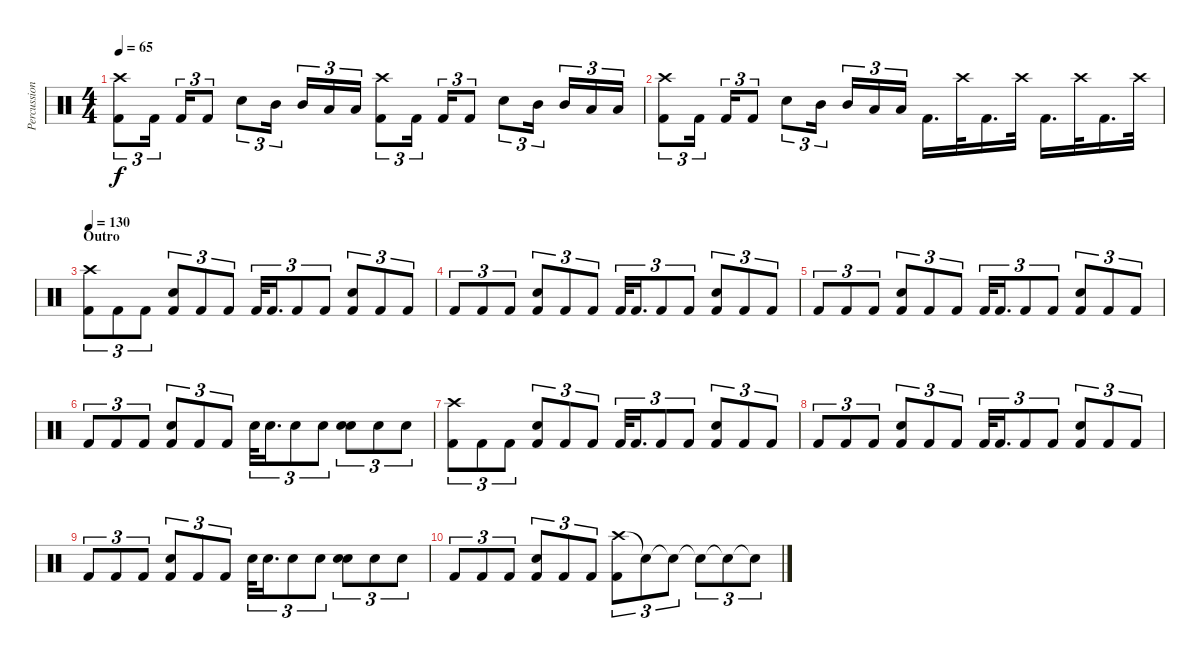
\track ("Percussions" "Percussion") {instrument percussion}
\staff {score}
\articulation defaults
\ts (4 4)
\tempo 65
\clef neutral
\ks c
("Crash high (hit)" "Kick (hit) 2").8{tu (3 2) dy f} "Kick (hit) 2".16{tu (3 2) beam splitsecondary} "Kick (hit) 2".16{tu (3 2)} "Kick (hit) 2".8{tu (3 2)} "Electric Snare (hit)".8{tu (3 2)} "Mid Tom (hit)".16{tu (3 2) beam splitsecondary} "Mid Tom (hit)".16{tu (3 2)} "Low Tom (hit)".16{tu (3 2)} "Low Tom (hit)".16{tu (3 2)} ("Crash high (hit)" "Kick (hit) 2").8{tu (3 2)} "Kick (hit) 2".16{tu (3 2) beam splitsecondary} "Kick (hit) 2".16{tu (3 2)} "Kick (hit) 2".8{tu (3 2)} "Electric Snare (hit)".8{tu (3 2)} "Mid Tom (hit)".16{tu (3 2) beam splitsecondary} "Mid Tom (hit)".16{tu (3 2)} "Low Tom (hit)".16{tu (3 2)} "Low Tom (hit)".16{tu (3 2)} |
("Crash high (hit)" "Kick (hit) 2").8{tu (3 2)} "Kick (hit) 2".16{tu (3 2) beam splitsecondary} "Kick (hit) 2".16{tu (3 2)} "Kick (hit) 2".8{tu (3 2)} "Electric Snare (hit)".8{tu (3 2)} "Mid Tom (hit)".16{tu (3 2) beam splitsecondary} "Mid Tom (hit)".16{tu (3 2)} "Low Tom (hit)".16{tu (3 2)} "Low Tom (hit)".16{tu (3 2)} "Kick (hit) 2".16{d} "Crash high (hit)".32 "Kick (hit) 2".16{d} "Crash high (hit)".32 "Kick (hit) 2".16{d} "Crash high (hit)".32 "Kick (hit) 2".16{d} "Crash high (hit)".32 |
\section ("" "Outro ")
\tempo 130
("Crash high (hit)" "Kick (hit) 2").8{tu (3 2)} "Kick (hit) 2".8{tu (3 2)} "Kick (hit) 2".8{tu (3 2)} ("Electric Snare (hit)" "Kick (hit) 2").8{tu (3 2)} "Kick (hit) 2".8{tu (3 2)} "Kick (hit) 2".8{tu (3 2)} "Kick (hit) 2".32{tu (3 2)} "Kick (hit) 2".16{d tu (3 2)} "Kick (hit) 2".8{tu (3 2)} "Kick (hit) 2".8{tu (3 2)} ("Electric Snare (hit)" "Kick (hit) 2").8{tu (3 2)} "Kick (hit) 2".8{tu (3 2)} "Kick (hit) 2".8{tu (3 2)} |
"Kick (hit) 2".8{tu (3 2)} "Kick (hit) 2".8{tu (3 2)} "Kick (hit) 2".8{tu (3 2)} ("Electric Snare (hit)" "Kick (hit) 2").8{tu (3 2)} "Kick (hit) 2".8{tu (3 2)} "Kick (hit) 2".8{tu (3 2)} "Kick (hit) 2".32{tu (3 2)} "Kick (hit) 2".16{d tu (3 2)} "Kick (hit) 2".8{tu (3 2)} "Kick (hit) 2".8{tu (3 2)} ("Electric Snare (hit)" "Kick (hit) 2").8{tu (3 2)} "Kick (hit) 2".8{tu (3 2)} "Kick (hit) 2".8{tu (3 2)} |
"Kick (hit) 2".8{tu (3 2)} "Kick (hit) 2".8{tu (3 2)} "Kick (hit) 2".8{tu (3 2)} ("Electric Snare (hit)" "Kick (hit) 2").8{tu (3 2)} "Kick (hit) 2".8{tu (3 2)} "Kick (hit) 2".8{tu (3 2)} "Kick (hit) 2".32{tu (3 2)} "Kick (hit) 2".16{d tu (3 2)} "Kick (hit) 2".8{tu (3 2)} "Kick (hit) 2".8{tu (3 2)} ("Electric Snare (hit)" "Kick (hit) 2").8{tu (3 2)} "Kick (hit) 2".8{tu (3 2)} "Kick (hit) 2".8{tu (3 2)} |
"Kick (hit) 2".8{tu (3 2)} "Kick (hit) 2".8{tu (3 2)} "Kick (hit) 2".8{tu (3 2)} ("Electric Snare (hit)" "Kick (hit) 2").8{tu (3 2)} "Kick (hit) 2".8{tu (3 2)} "Kick (hit) 2".8{tu (3 2)} "Electric Snare (hit)".32{tu (3 2)} "Electric Snare (hit)".16{d tu (3 2)} "Electric Snare (hit)".8{tu (3 2)} "Electric Snare (hit)".8{tu (3 2)} ("Electric Snare (hit)" "Electric Snare (hit)").8{tu (3 2)} "Electric Snare (hit)".8{tu (3 2)} "Electric Snare (hit)".8{tu (3 2)} |
("Crash high (hit)" "Kick (hit) 2").8{tu (3 2)} "Kick (hit) 2".8{tu (3 2)} "Kick (hit) 2".8{tu (3 2)} ("Electric Snare (hit)" "Kick (hit) 2").8{tu (3 2)} "Kick (hit) 2".8{tu (3 2)} "Kick (hit) 2".8{tu (3 2)} "Kick (hit) 2".32{tu (3 2)} "Kick (hit) 2".16{d tu (3 2)} "Kick (hit) 2".8{tu (3 2)} "Kick (hit) 2".8{tu (3 2)} ("Electric Snare (hit)" "Kick (hit) 2").8{tu (3 2)} "Kick (hit) 2".8{tu (3 2)} "Kick (hit) 2".8{tu (3 2)} |
"Kick (hit) 2".8{tu (3 2)} "Kick (hit) 2".8{tu (3 2)} "Kick (hit) 2".8{tu (3 2)} ("Electric Snare (hit)" "Kick (hit) 2").8{tu (3 2)} "Kick (hit) 2".8{tu (3 2)} "Kick (hit) 2".8{tu (3 2)} "Kick (hit) 2".32{tu (3 2)} "Kick (hit) 2".16{d tu (3 2)} "Kick (hit) 2".8{tu (3 2)} "Kick (hit) 2".8{tu (3 2)} ("Electric Snare (hit)" "Kick (hit) 2").8{tu (3 2)} "Kick (hit) 2".8{tu (3 2)} "Kick (hit) 2".8{tu (3 2)} |
"Kick (hit) 2".8{tu (3 2)} "Kick (hit) 2".8{tu (3 2)} "Kick (hit) 2".8{tu (3 2)} ("Electric Snare (hit)" "Kick (hit) 2").8{tu (3 2)} "Kick (hit) 2".8{tu (3 2)} "Kick (hit) 2".8{tu (3 2)} "Electric Snare (hit)".32{tu (3 2)} "Electric Snare (hit)".16{d tu (3 2)} "Electric Snare (hit)".8{tu (3 2)} "Electric Snare (hit)".8{tu (3 2)} ("Electric Snare (hit)" "Electric Snare (hit)").8{tu (3 2)} "Electric Snare (hit)".8{tu (3 2)} "Electric Snare (hit)".8{tu (3 2)} |
"Kick (hit) 2".8{tu (3 2)} "Kick (hit) 2".8{tu (3 2)} "Kick (hit) 2".8{tu (3 2)} ("Electric Snare (hit)" "Kick (hit) 2").8{tu (3 2)} "Kick (hit) 2".8{tu (3 2)} "Kick (hit) 2".8{tu (3 2)} ("Crash high (hit)" "Kick (hit) 2").8{tu (3 2)} "Snare (hit)"{t}.8{tu (3 2)} "Snare (hit)"{t}.8{tu (3 2)} "Snare (hit)"{t}.8{tu (3 2)} "Snare (hit)"{t}.8{tu (3 2)} "Snare (hit)"{t}.8{tu (3 2)}
